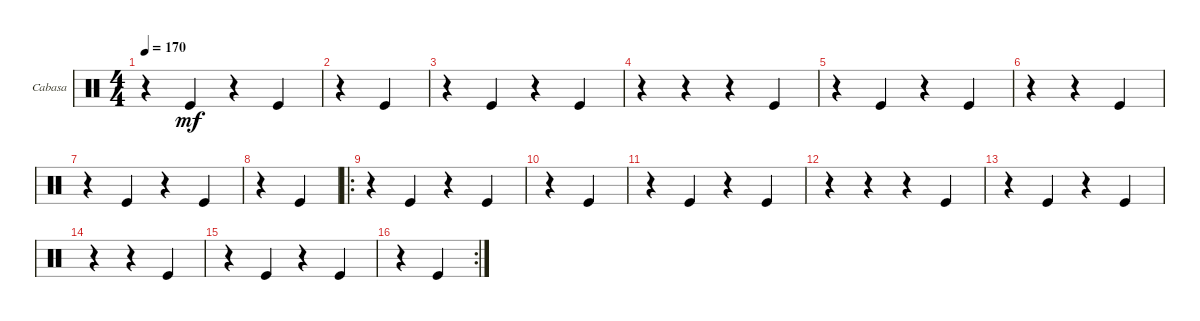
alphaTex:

\defaultSystemsLayout 4
\bracketExtendMode groupsimilarinstruments
\firstSystemTrackNameOrientation horizontal
\otherSystemsTrackNameOrientation horizontal
\track ("Cabasa" "Cabasa") {instrument percussion}
\staff {score}
\articulation defaults
\ts (4 4)
\tempo 170
\clef neutral
\ks c
r.4{dy mf} "Kick (hit)".4 r.4 "Kick (hit)".4 |
r.4 "Kick (hit)".4 |
r.4 "Kick (hit)".4 r.4 "Kick (hit)".4 |
r.4 r.4 r.4 "Kick (hit)".4 |
r.4 "Kick (hit)".4 r.4 "Kick (hit)".4 |
r.4 r.4 "Kick (hit)".4 |
r.4 "Kick (hit)".4 r.4 "Kick (hit)".4 |
r.4 "Kick (hit)".4 |
\ro
r.4 "Kick (hit)".4 r.4 "Kick (hit)".4 |
r.4 "Kick (hit)".4 |
r.4 "Kick (hit)".4 r.4 "Kick (hit)".4 |
r.4 r.4 r.4 "Kick (hit)".4 |
r.4 "Kick (hit)".4 r.4 "Kick (hit)".4 |
r.4 r.4 "Kick (hit)".4 |
r.4 "Kick (hit)".4 r.4 "Kick (hit)".4 |
\rc 2
r.4 "Kick (hit)".4
